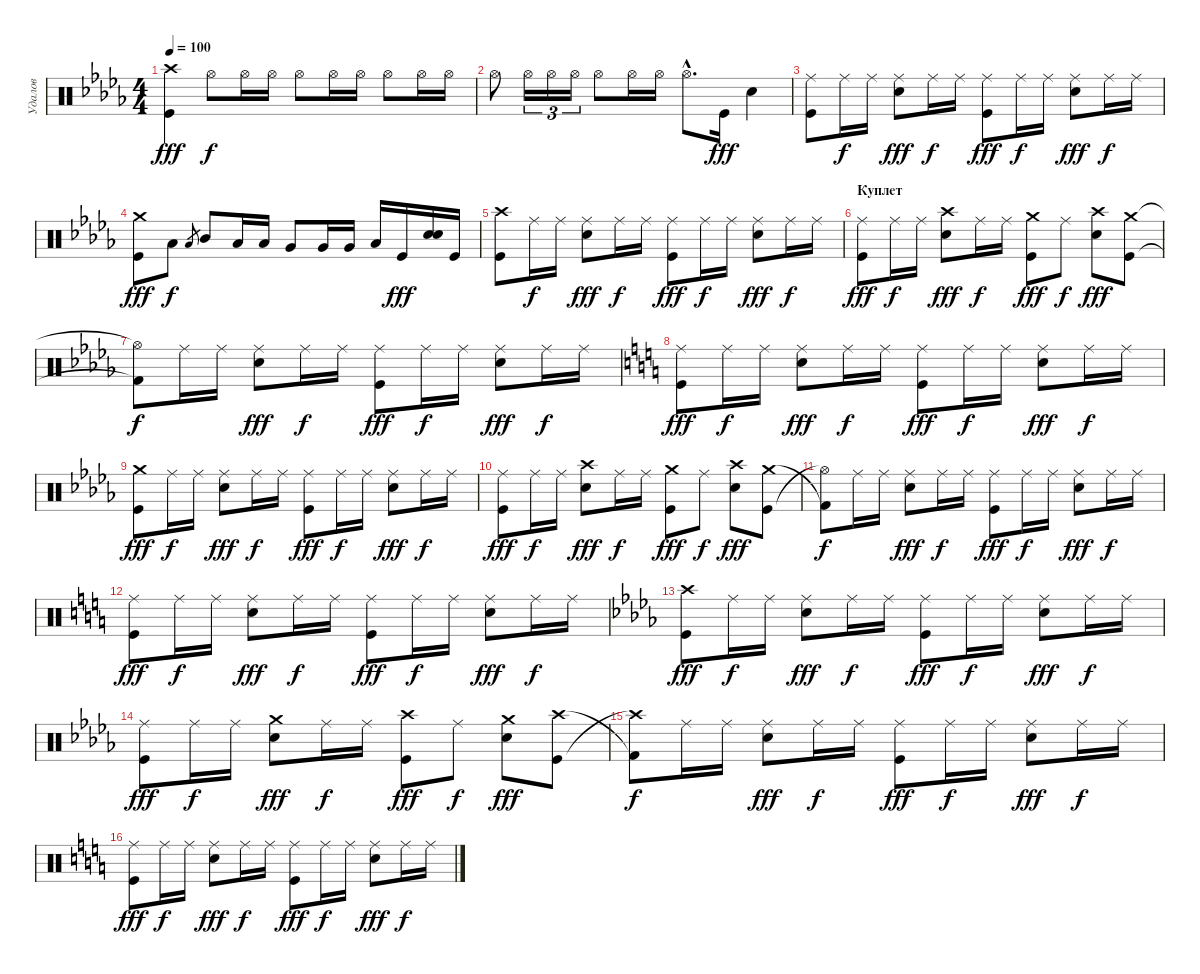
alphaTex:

\track ("Удалов " "Удалов ") {instrument percussion}
\staff {score}
\articulation defaults
\ts (4 4)
\tempo 100
\clef neutral
\ks db
("Kick (hit)" "Crash high (hit)").4{dy fff} "Hi-Hat (open)".8{dy f} "Hi-Hat (open)".16 "Hi-Hat (open)".16 "Hi-Hat (open)".8 "Hi-Hat (open)".16 "Hi-Hat (open)".16 "Hi-Hat (open)".8 "Hi-Hat (open)".16 "Hi-Hat (open)".16 |
"Hi-Hat (open)".8 "Hi-Hat (open)".16{tu (3 2)} "Hi-Hat (open)".16{tu (3 2)} "Hi-Hat (open)".16{tu (3 2)} "Hi-Hat (open)".8 "Hi-Hat (open)".16 "Hi-Hat (open)".16 "Hi-Hat (open)"{hac}.8{d} "Kick (hit)".16{dy fff} "Snare (hit) 2".4 |
("Kick (hit)" "Ride (middle)").8 "Ride (middle)".16{dy f} "Ride (middle)".16 ("Snare (hit) 2" "Ride (middle)").8{dy fff} "Ride (middle)".16{dy f} "Ride (middle)".16 ("Kick (hit)" "Ride (middle)").8{dy fff} "Ride (middle)".16{dy f} "Ride (middle)".16 ("Snare (hit) 2" "Ride (middle)").8{dy fff} "Ride (middle)".16{dy f} "Ride (middle)".16 |
("Kick (hit)" "Crash medium (hit)").8{dy fff} "Low Tom (hit)".8{dy f} "Low Tom (hit)".8{gr} "Mid Tom (hit)".8 "Low Tom (hit)".16 "Low Tom (hit)".16 "Very Low Tom (hit)".8 "Very Low Tom (hit)".16 "Very Low Tom (hit)".16 "Low Floor Tom (hit)".16 "Kick (hit)".16{dy fff} ("Snare (hit) 2" "Snare (hit) 2").16 "Kick (hit)".16 |
("Crash high (hit)" "Kick (hit)").8 "Ride (middle)".16{dy f} "Ride (middle)".16 ("Snare (hit) 2" "Ride (middle)").8{dy fff} "Ride (middle)".16{dy f} "Ride (middle)".16 ("Kick (hit)" "Ride (middle)").8{dy fff} "Ride (middle)".16{dy f} "Ride (middle)".16 ("Snare (hit) 2" "Ride (middle)").8{dy fff} "Ride (middle)".16{dy f} "Ride (middle)".16 |
\section ("" "Куплет")
("Kick (hit)" "Ride (middle)").8{dy fff} "Ride (middle)".16{dy f} "Ride (middle)".16 ("Snare (hit) 2" "Crash high (hit)").8{dy fff} "Ride (middle)".16{dy f} "Ride (middle)".16 ("Kick (hit)" "Crash medium (hit)").8{dy fff} "Ride (middle)".8{dy f} ("Snare (hit) 2" "Crash high (hit)").8{dy fff} ("Kick (hit)" "Crash medium (hit)").8 |
("Kick (hit) 2"{t} "Hi-Hat (open)"{t}).8{dy f} "Ride (middle)".16 "Ride (middle)".16 ("Snare (hit) 2" "Ride (middle)").8{dy fff} "Ride (middle)".16{dy f} "Ride (middle)".16 ("Kick (hit)" "Ride (middle)").8{dy fff} "Ride (middle)".16{dy f} "Ride (middle)".16 ("Snare (hit) 2" "Ride (middle)").8{dy fff} "Ride (middle)".16{dy f} "Ride (middle)".16 |
\ks c
("Kick (hit)" "Ride (middle)").8{dy fff} "Ride (middle)".16{dy f} "Ride (middle)".16 ("Snare (hit) 2" "Ride (middle)").8{dy fff} "Ride (middle)".16{dy f} "Ride (middle)".16 ("Kick (hit)" "Ride (middle)").8{dy fff} "Ride (middle)".16{dy f} "Ride (middle)".16 ("Snare (hit) 2" "Ride (middle)").8{dy fff} "Ride (middle)".16{dy f} "Ride (middle)".16 |
\ks db
("Crash medium (hit)" "Kick (hit)").8{dy fff} "Ride (middle)".16{dy f} "Ride (middle)".16 ("Snare (hit) 2" "Ride (middle)").8{dy fff} "Ride (middle)".16{dy f} "Ride (middle)".16 ("Kick (hit)" "Ride (middle)").8{dy fff} "Ride (middle)".16{dy f} "Ride (middle)".16 ("Snare (hit) 2" "Ride (middle)").8{dy fff} "Ride (middle)".16{dy f} "Ride (middle)".16 |
("Kick (hit)" "Ride (middle)").8{dy fff} "Ride (middle)".16{dy f} "Ride (middle)".16 ("Snare (hit) 2" "Crash high (hit)").8{dy fff} "Ride (middle)".16{dy f} "Ride (middle)".16 ("Kick (hit)" "Crash medium (hit)").8{dy fff} "Ride (middle)".8{dy f} ("Snare (hit) 2" "Crash high (hit)").8{dy fff} ("Crash medium (hit)" "Kick (hit)").8 |
("Kick (hit) 2"{t} "Hi-Hat (open)"{t}).8{dy f} "Ride (middle)".16 "Ride (middle)".16 ("Snare (hit) 2" "Ride (middle)").8{dy fff} "Ride (middle)".16{dy f} "Ride (middle)".16 ("Kick (hit)" "Ride (middle)").8{dy fff} "Ride (middle)".16{dy f} "Ride (middle)".16 ("Snare (hit) 2" "Ride (middle)").8{dy fff} "Ride (middle)".16{dy f} "Ride (middle)".16 |
\ks c
("Kick (hit)" "Ride (middle)").8{dy fff} "Ride (middle)".16{dy f} "Ride (middle)".16 ("Snare (hit) 2" "Ride (middle)").8{dy fff} "Ride (middle)".16{dy f} "Ride (middle)".16 ("Kick (hit)" "Ride (middle)").8{dy fff} "Ride (middle)".16{dy f} "Ride (middle)".16 ("Snare (hit) 2" "Ride (middle)").8{dy fff} "Ride (middle)".16{dy f} "Ride (middle)".16 |
\ks db
("Kick (hit)" "Crash high (hit)").8{dy fff} "Ride (middle)".16{dy f} "Ride (middle)".16 ("Snare (hit) 2" "Ride (middle)").8{dy fff} "Ride (middle)".16{dy f} "Ride (middle)".16 ("Kick (hit)" "Ride (middle)").8{dy fff} "Ride (middle)".16{dy f} "Ride (middle)".16 ("Snare (hit) 2" "Ride (middle)").8{dy fff} "Ride (middle)".16{dy f} "Ride (middle)".16 |
("Kick (hit)" "Ride (middle)").8{dy fff} "Ride (middle)".16{dy f} "Ride (middle)".16 ("Snare (hit) 2" "Crash medium (hit)").8{dy fff} "Ride (middle)".16{dy f} "Ride (middle)".16 ("Kick (hit)" "Crash high (hit)").8{dy fff} "Ride (middle)".8{dy f} ("Snare (hit) 2" "Crash medium (hit)").8{dy fff} ("Kick (hit)" "Crash high (hit)").8 |
("Crash high (hit)"{t} "Kick (hit) 2"{t}).8{dy f} "Ride (middle)".16 "Ride (middle)".16 ("Snare (hit) 2" "Ride (middle)").8{dy fff} "Ride (middle)".16{dy f} "Ride (middle)".16 ("Kick (hit)" "Ride (middle)").8{dy fff} "Ride (middle)".16{dy f} "Ride (middle)".16 ("Snare (hit) 2" "Ride (middle)").8{dy fff} "Ride (middle)".16{dy f} "Ride (middle)".16 |
\ks c
("Kick (hit)" "Ride (middle)").8{dy fff} "Ride (middle)".16{dy f} "Ride (middle)".16 ("Snare (hit) 2" "Ride (middle)").8{dy fff} "Ride (middle)".16{dy f} "Ride (middle)".16 ("Kick (hit)" "Ride (middle)").8{dy fff} "Ride (middle)".16{dy f} "Ride (middle)".16 ("Snare (hit) 2" "Ride (middle)").8{dy fff} "Ride (middle)".16{dy f} "Ride (middle)".16
